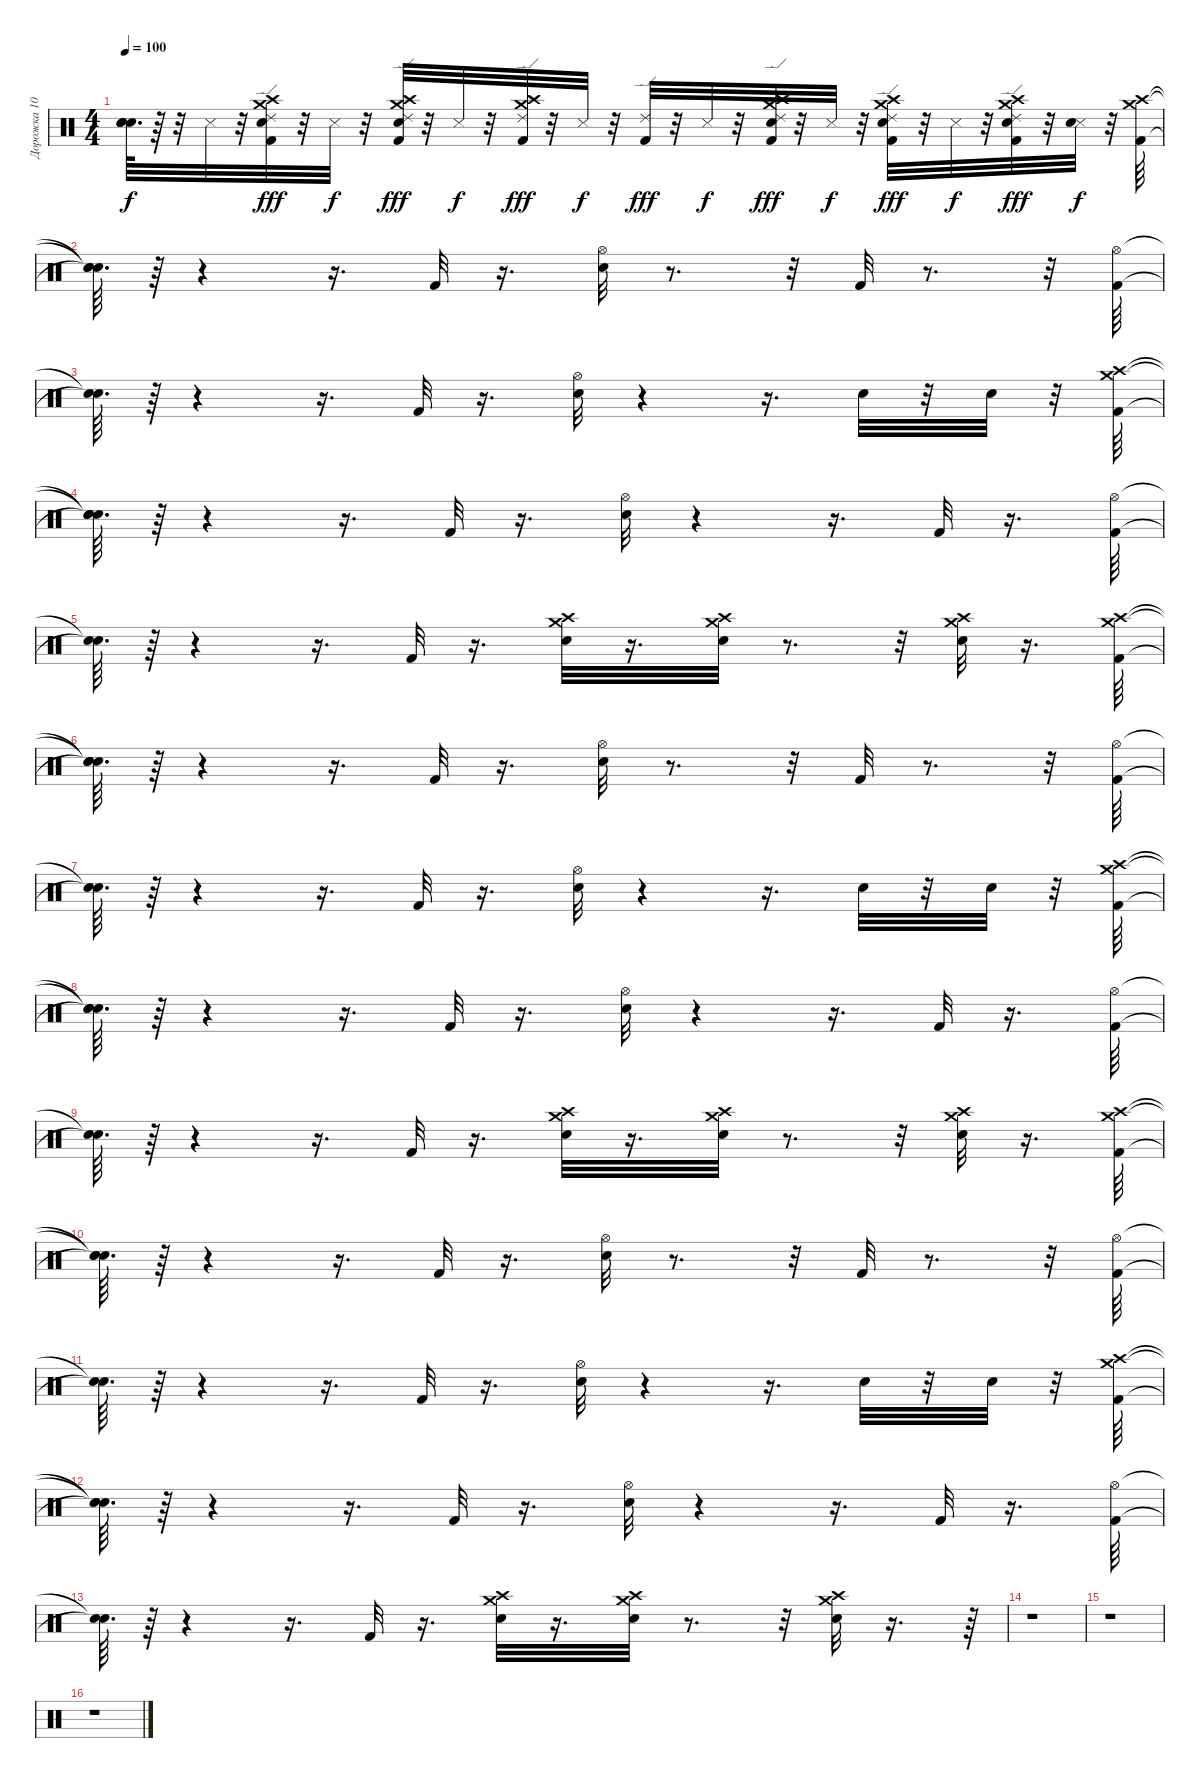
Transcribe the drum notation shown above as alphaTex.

\track ("Дорожка 10" "Дорожка 10") {instrument percussion}
\staff {score}
\articulation defaults
\ts (4 4)
\tempo 100
\clef neutral
\ks c
("Snare (hit)"{t} "Snare (hit)"{t} "Snare (hit)"{t}).64{d dy f} r.64 r.32 "Metronome (hit)".32 r.32 ("Kick (hit) 2" "Crash medium (hit)" "Crash high (hit)" "Snare (hit) 2" "Ride (edge) 2").32{dy fff} r.32 "Metronome (hit)".32{dy f} r.32 ("Kick (hit) 2" "Crash high (hit)" "Crash medium (hit)" "Snare (hit) 2" "Ride (edge) 2").32{dy fff} r.32 "Metronome (hit)".32{dy f} r.32 ("Kick (hit) 2" "Crash medium (hit)" "Crash high (hit)" "Ride (edge) 2").32{dy fff} r.32 "Metronome (hit)".32{dy f} r.32 ("Kick (hit) 2" "Ride (edge) 2").32{dy fff} r.32 "Metronome (hit)".32{dy f} r.32 ("Kick (hit) 2" "Crash medium (hit)" "Crash high (hit)" "Snare (hit) 2" "Ride (edge) 2").32{dy fff} r.32 "Metronome (hit)".32{dy f} r.32 ("Kick (hit) 2" "Crash medium (hit)" "Crash high (hit)" "Snare (hit) 2" "Ride (edge) 2").32{dy fff} r.32 "Metronome (hit)".32{dy f} r.32 ("Kick (hit) 2" "Snare (hit) 2" "Crash medium (hit)" "Crash high (hit)" "Ride (edge) 2").32{dy fff} r.32 ("Metronome (hit)" "Snare (hit) 2").32{dy f} r.32 ("Crash medium (hit)" "Crash high (hit)" "Kick (hit) 2").64 |
("Snare (hit)"{t} "Snare (hit)"{t} "Snare (hit)"{t}).64{d} r.64 r.4 r.16{d} "Kick (hit) 2".32 r.16{d} ("Snare (hit) 2" "Hi-Hat (open)").32 r.8{d} r.32 "Kick (hit) 2".32 r.8{d} r.32 ("Hi-Hat (open)" "Kick (hit) 2").64 |
("Snare (hit)"{t} "Snare (hit)"{t}).64{d} r.64 r.4 r.16{d} "Kick (hit) 2".32 r.16{d} ("Snare (hit) 2" "Hi-Hat (open)").32 r.4 r.16{d} "Snare (hit) 2".32 r.32 "Snare (hit) 2".32 r.32 ("Crash high (hit)" "Crash medium (hit)" "Kick (hit) 2").64 |
("Snare (hit)"{t} "Snare (hit)"{t} "Snare (hit)"{t}).64{d} r.64 r.4 r.16{d} "Kick (hit) 2".32 r.16{d} ("Hi-Hat (open)" "Snare (hit) 2").32 r.4 r.16{d} "Kick (hit) 2".32 r.16{d} ("Hi-Hat (open)" "Kick (hit) 2").64 |
("Snare (hit)"{t} "Snare (hit)"{t}).64{d} r.64 r.4 r.16{d} "Kick (hit) 2".32 r.16{d} ("Crash high (hit)" "Crash medium (hit)" "Snare (hit) 2").32 r.16{d} ("Crash high (hit)" "Crash medium (hit)" "Snare (hit) 2").32 r.8{d} r.32 ("Crash medium (hit)" "Crash high (hit)" "Snare (hit) 2").32 r.16{d} ("Crash medium (hit)" "Crash high (hit)" "Kick (hit) 2").64 |
("Snare (hit)"{t} "Snare (hit)"{t} "Snare (hit)"{t}).64{d} r.64 r.4 r.16{d} "Kick (hit) 2".32 r.16{d} ("Snare (hit) 2" "Hi-Hat (open)").32 r.8{d} r.32 "Kick (hit) 2".32 r.8{d} r.32 ("Hi-Hat (open)" "Kick (hit) 2").64 |
("Snare (hit)"{t} "Snare (hit)"{t}).64{d} r.64 r.4 r.16{d} "Kick (hit) 2".32 r.16{d} ("Snare (hit) 2" "Hi-Hat (open)").32 r.4 r.16{d} "Snare (hit) 2".32 r.32 "Snare (hit) 2".32 r.32 ("Crash high (hit)" "Crash medium (hit)" "Kick (hit) 2").64 |
("Snare (hit)"{t} "Snare (hit)"{t} "Snare (hit)"{t}).64{d} r.64 r.4 r.16{d} "Kick (hit) 2".32 r.16{d} ("Hi-Hat (open)" "Snare (hit) 2").32 r.4 r.16{d} "Kick (hit) 2".32 r.16{d} ("Hi-Hat (open)" "Kick (hit) 2").64 |
("Snare (hit)"{t} "Snare (hit)"{t}).64{d} r.64 r.4 r.16{d} "Kick (hit) 2".32 r.16{d} ("Crash high (hit)" "Crash medium (hit)" "Snare (hit) 2").32 r.16{d} ("Crash high (hit)" "Crash medium (hit)" "Snare (hit) 2").32 r.8{d} r.32 ("Crash medium (hit)" "Crash high (hit)" "Snare (hit) 2").32 r.16{d} ("Crash medium (hit)" "Crash high (hit)" "Kick (hit) 2").64 |
("Snare (hit)"{t} "Snare (hit)"{t} "Snare (hit)"{t}).64{d} r.64 r.4 r.16{d} "Kick (hit) 2".32 r.16{d} ("Snare (hit) 2" "Hi-Hat (open)").32 r.8{d} r.32 "Kick (hit) 2".32 r.8{d} r.32 ("Hi-Hat (open)" "Kick (hit) 2").64 |
("Snare (hit)"{t} "Snare (hit)"{t}).64{d} r.64 r.4 r.16{d} "Kick (hit) 2".32 r.16{d} ("Snare (hit) 2" "Hi-Hat (open)").32 r.4 r.16{d} "Snare (hit) 2".32 r.32 "Snare (hit) 2".32 r.32 ("Crash high (hit)" "Crash medium (hit)" "Kick (hit) 2").64 |
("Snare (hit)"{t} "Snare (hit)"{t} "Snare (hit)"{t}).64{d} r.64 r.4 r.16{d} "Kick (hit) 2".32 r.16{d} ("Hi-Hat (open)" "Snare (hit) 2").32 r.4 r.16{d} "Kick (hit) 2".32 r.16{d} ("Hi-Hat (open)" "Kick (hit) 2").64 |
("Snare (hit)"{t} "Snare (hit)"{t}).64{d} r.64 r.4 r.16{d} "Kick (hit) 2".32 r.16{d} ("Crash high (hit)" "Crash medium (hit)" "Snare (hit) 2").32 r.16{d} ("Crash high (hit)" "Crash medium (hit)" "Snare (hit) 2").32 r.8{d} r.32 ("Crash medium (hit)" "Crash high (hit)" "Snare (hit) 2").32 r.16{d} r.64 |
r.1 |
r.1 |
r.1
